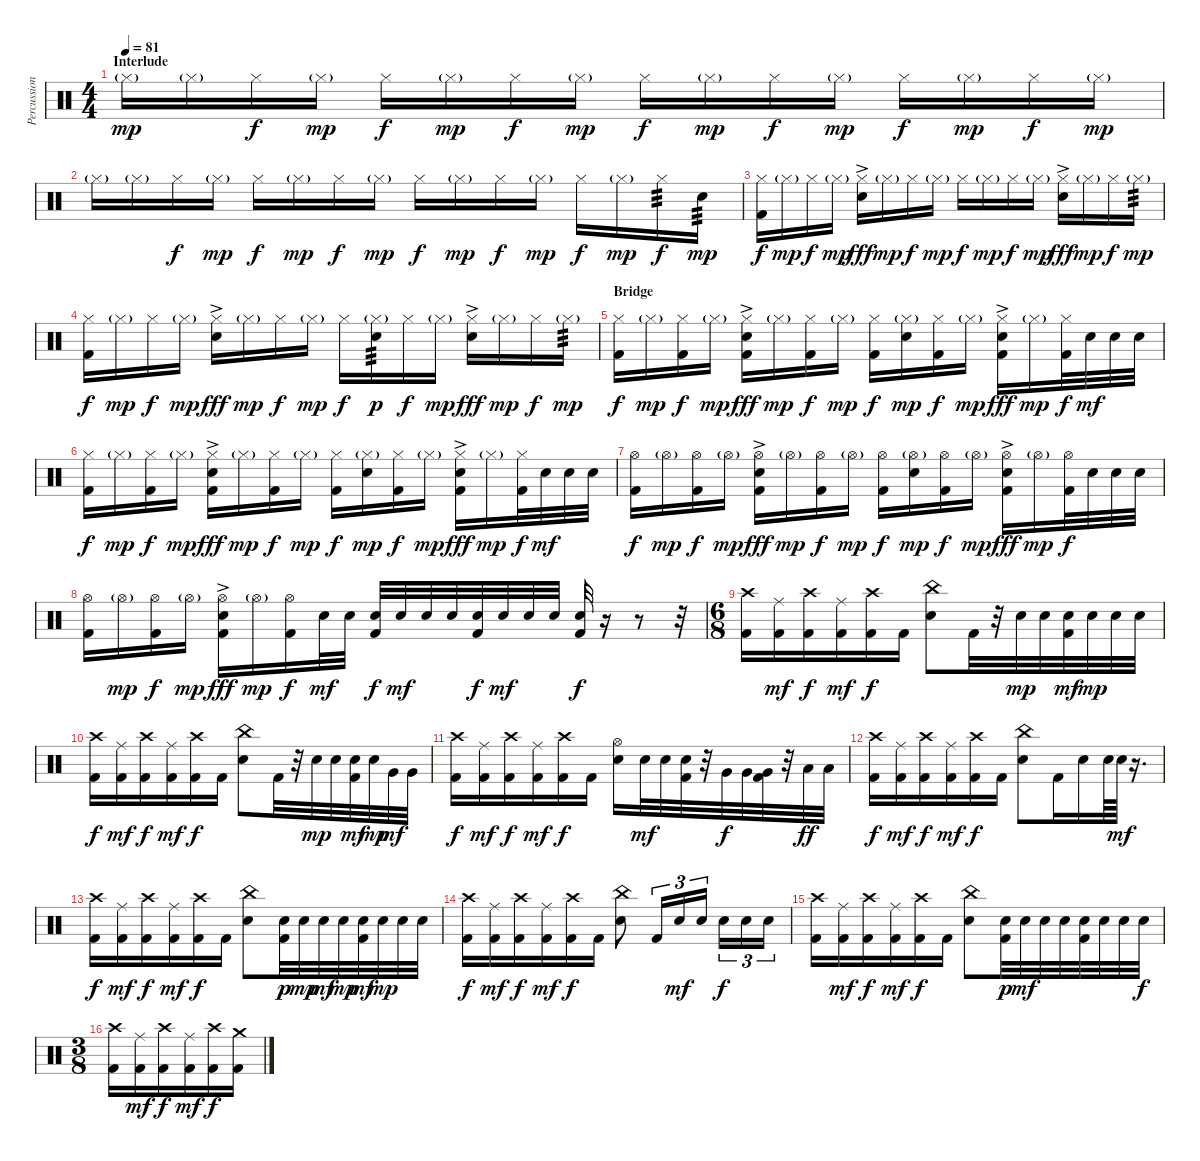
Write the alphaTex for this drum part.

\track ("Percussion" "Percussion") {instrument percussion}
\staff {score}
\articulation defaults
\ts (4 4)
\section ("" "Interlude")
\tempo 81
\clef neutral
\ks c "Hi-Hat (closed)"{g}.16{dy mp} "Hi-Hat (closed)"{g}.16 "Hi-Hat (closed)".16{dy f} "Hi-Hat (closed)"{g}.16{dy mp} "Hi-Hat (closed)".16{dy f} "Hi-Hat (closed)"{g}.16{dy mp} "Hi-Hat (closed)".16{dy f} "Hi-Hat (closed)"{g}.16{dy mp} "Hi-Hat (closed)".16{dy f} "Hi-Hat (closed)"{g}.16{dy mp} "Hi-Hat (closed)".16{dy f} "Hi-Hat (closed)"{g}.16{dy mp} "Hi-Hat (closed)".16{dy f} "Hi-Hat (closed)"{g}.16{dy mp} "Hi-Hat (closed)".16{dy f} "Hi-Hat (closed)"{g}.16{dy mp}
|
"Hi-Hat (closed)"{g}.16 "Hi-Hat (closed)"{g}.16 "Hi-Hat (closed)".16{dy f} "Hi-Hat (closed)"{g}.16{dy mp} "Hi-Hat (closed)".16{dy f} "Hi-Hat (closed)"{g}.16{dy mp} "Hi-Hat (closed)".16{dy f} "Hi-Hat (closed)"{g}.16{dy mp} "Hi-Hat (closed)".16{dy f} "Hi-Hat (closed)"{g}.16{dy mp} "Hi-Hat (closed)".16{dy f} "Hi-Hat (closed)"{g}.16{dy mp} "Hi-Hat (closed)".16{dy f} "Hi-Hat (closed)"{g}.16{dy mp} "Hi-Hat (closed)".16{tp 3 dy f} "Electric Snare (hit)".16{tp 3 dy mp} |
("Hi-Hat (closed)" "Kick (hit) 2").16{dy f} "Hi-Hat (closed)"{g}.16{dy mp} "Hi-Hat (closed)".16{dy f} "Hi-Hat (closed)"{g}.16{dy mp} ("Hi-Hat (closed)" "Electric Snare (hit)"{ac}).16{dy fff} "Hi-Hat (closed)"{g}.16{dy mp} "Hi-Hat (closed)".16{dy f} "Hi-Hat (closed)"{g}.16{dy mp} "Hi-Hat (closed)".16{dy f} "Hi-Hat (closed)"{g}.16{dy mp} "Hi-Hat (closed)".16{dy f} "Hi-Hat (closed)"{g}.16{dy mp} ("Hi-Hat (closed)" "Electric Snare (hit)"{ac}).16{dy fff} "Hi-Hat (closed)"{g}.16{dy mp} "Hi-Hat (closed)".16{dy f} "Hi-Hat (closed)"{g}.16{tp 3 dy mp} |
("Hi-Hat (closed)" "Kick (hit) 2").16{dy f} "Hi-Hat (closed)"{g}.16{dy mp} "Hi-Hat (closed)".16{dy f} "Hi-Hat (closed)"{g}.16{dy mp} ("Hi-Hat (closed)" "Electric Snare (hit)"{ac}).16{dy fff} "Hi-Hat (closed)"{g}.16{dy mp} "Hi-Hat (closed)".16{dy f} "Hi-Hat (closed)"{g}.16{dy mp} "Hi-Hat (closed)".16{dy f} ("Hi-Hat (closed)"{g} "Electric Snare (hit)").16{tp 3 dy p} "Hi-Hat (closed)".16{dy f} "Hi-Hat (closed)"{g}.16{dy mp} ("Hi-Hat (closed)" "Electric Snare (hit)"{ac}).16{dy fff} "Hi-Hat (closed)"{g}.16{dy mp} "Hi-Hat (closed)".16{dy f} "Hi-Hat (closed)"{g}.16{tp 3 dy mp} |
\section ("" "Bridge")
("Hi-Hat (closed)" "Kick (hit) 2").16{dy f} "Hi-Hat (closed)"{g}.16{dy mp} ("Hi-Hat (closed)" "Kick (hit) 2").16{dy f} "Hi-Hat (closed)"{g}.16{dy mp} ("Hi-Hat (closed)" "Electric Snare (hit)"{ac} "Kick (hit) 2").16{dy fff} "Hi-Hat (closed)"{g}.16{dy mp} ("Hi-Hat (closed)" "Kick (hit) 2").16{dy f} "Hi-Hat (closed)"{g}.16{dy mp} ("Hi-Hat (closed)" "Kick (hit) 2").16{dy f} ("Hi-Hat (closed)"{g} "Electric Snare (hit)").16{dy mp} ("Hi-Hat (closed)" "Kick (hit) 2").16{dy f} "Hi-Hat (closed)"{g}.16{dy mp} ("Hi-Hat (closed)" "Electric Snare (hit)"{ac} "Kick (hit) 2").16{dy fff} "Hi-Hat (closed)"{g}.16{dy mp} ("Hi-Hat (closed)" "Kick (hit) 2").32{dy f} "Electric Snare (hit)".32{dy mf} "Electric Snare (hit)".32 "Electric Snare (hit)".32 |
("Hi-Hat (closed)" "Kick (hit) 2").16{dy f} "Hi-Hat (closed)"{g}.16{dy mp} ("Hi-Hat (closed)" "Kick (hit) 2").16{dy f} "Hi-Hat (closed)"{g}.16{dy mp} ("Hi-Hat (closed)" "Electric Snare (hit)"{ac} "Kick (hit) 2").16{dy fff} "Hi-Hat (closed)"{g}.16{dy mp} ("Hi-Hat (closed)" "Kick (hit) 2").16{dy f} "Hi-Hat (closed)"{g}.16{dy mp} ("Hi-Hat (closed)" "Kick (hit) 2").16{dy f} ("Hi-Hat (closed)"{g} "Electric Snare (hit)").16{dy mp} ("Hi-Hat (closed)" "Kick (hit) 2").16{dy f} "Hi-Hat (closed)"{g}.16{dy mp} ("Hi-Hat (closed)" "Electric Snare (hit)"{ac} "Kick (hit) 2").16{dy fff} "Hi-Hat (closed)"{g}.16{dy mp} ("Hi-Hat (closed)" "Kick (hit) 2").32{dy f} "Electric Snare (hit)".32{dy mf} "Electric Snare (hit)".32 "Electric Snare (hit)".32 |
("Hi-Hat (open)" "Kick (hit) 2").16{dy f} "Hi-Hat (open)"{g}.16{dy mp} ("Hi-Hat (open)" "Kick (hit) 2").16{dy f} "Hi-Hat (open)"{g}.16{dy mp} ("Hi-Hat (open)" "Electric Snare (hit)"{ac} "Kick (hit) 2").16{dy fff} "Hi-Hat (open)"{g}.16{dy mp} ("Hi-Hat (open)" "Kick (hit) 2").16{dy f} "Hi-Hat (open)"{g}.16{dy mp} ("Hi-Hat (open)" "Kick (hit) 2").16{dy f} ("Hi-Hat (open)"{g} "Electric Snare (hit)").16{dy mp} ("Hi-Hat (open)" "Kick (hit) 2").16{dy f} "Hi-Hat (open)"{g}.16{dy mp} ("Hi-Hat (open)" "Electric Snare (hit)"{ac} "Kick (hit) 2").16{dy fff} "Hi-Hat (open)"{g}.16{dy mp} ("Hi-Hat (open)" "Kick (hit) 2").32{dy f} "Electric Snare (hit)".32 "Electric Snare (hit)".32 "Electric Snare (hit)".32 |
("Hi-Hat (open)" "Kick (hit) 2").16 "Hi-Hat (open)"{g}.16{dy mp} ("Hi-Hat (open)" "Kick (hit) 2").16{dy f} "Hi-Hat (open)"{g}.16{dy mp} ("Hi-Hat (open)" "Electric Snare (hit)"{ac} "Kick (hit) 2").16{dy fff} "Hi-Hat (open)"{g}.16{dy mp} ("Hi-Hat (open)" "Kick (hit) 2").16{dy f} "Electric Snare (hit)".32{dy mf} "Electric Snare (hit)".32 ("Electric Snare (hit)" "Kick (hit) 2").32{dy f} "Electric Snare (hit)".32{dy mf} "Electric Snare (hit)".32 "Electric Snare (hit)".32 ("Electric Snare (hit)" "Kick (hit) 2").32{dy f} "Electric Snare (hit)".32{dy mf} "Electric Snare (hit)".32 "Electric Snare (hit)".32 ("Electric Snare (hit)" "Kick (hit) 2").32{dy f} r.16 r.8 r.32 |
\ts (6 8)
("Crash high (hit)" "Kick (hit) 2").16 ("Ride (middle)" "Kick (hit) 2").16{dy mf} ("Crash high (hit)" "Kick (hit) 2").16{dy f} ("Ride (middle)" "Kick (hit) 2").16{dy mf} ("Crash high (hit)" "Kick (hit) 2").16{dy f} "Kick (hit) 2".16 ("China (hit)" "Electric Snare (hit)").8 "Kick (hit) 2".32 r.32 "Electric Snare (hit)".32{dy mp} "Electric Snare (hit)".32 ("Electric Snare (hit)" "Kick (hit) 2").32{dy mf} "Electric Snare (hit)".32{dy mp} "Electric Snare (hit)".32 "Electric Snare (hit)".32 |
("Crash high (hit)" "Kick (hit) 2").16{dy f} ("Ride (middle)" "Kick (hit) 2").16{dy mf} ("Crash high (hit)" "Kick (hit) 2").16{dy f} ("Ride (middle)" "Kick (hit) 2").16{dy mf} ("Crash high (hit)" "Kick (hit) 2").16{dy f} "Kick (hit) 2".16 ("China (hit)" "Electric Snare (hit)").8 "Kick (hit) 2".32 r.32 "Electric Snare (hit)".32{dy mp} "Electric Snare (hit)".32 ("Electric Snare (hit)" "Kick (hit) 2").32{dy mf} "Electric Snare (hit)".32{dy mp} "Very Low Tom (hit)".32{dy mf} "Very Low Tom (hit)".32 |
("Crash high (hit)" "Kick (hit) 2").16{dy f} ("Ride (middle)" "Kick (hit) 2").16{dy mf} ("Crash high (hit)" "Kick (hit) 2").16{dy f} ("Ride (middle)" "Kick (hit) 2").16{dy mf} ("Crash high (hit)" "Kick (hit) 2").16{dy f} "Kick (hit) 2".16 ("Hi-Hat (open)" "Electric Snare (hit)").16 "Electric Snare (hit)".32{dy mf} "Electric Snare (hit)".32 ("Electric Snare (hit)" "Kick (hit) 2").32 r.32 "Very Low Tom (hit)".32{dy f} "Very Low Tom (hit)".32 ("Very Low Tom (hit)" "Kick (hit) 2").32 r.32 "Low Floor Tom (hit)".32{dy ff} "Low Floor Tom (hit)".32 |
("Crash high (hit)" "Kick (hit) 2").16{dy f} ("Ride (middle)" "Kick (hit) 2").16{dy mf} ("Crash high (hit)" "Kick (hit) 2").16{dy f} ("Ride (middle)" "Kick (hit) 2").16{dy mf} ("Crash high (hit)" "Kick (hit) 2").16{dy f} "Kick (hit) 2".16 ("China (hit)" "Electric Snare (hit)").8 "Kick (hit) 2".16 "Electric Snare (hit)".16 "Electric Snare (hit)".64 "Electric Snare (hit)".64{dy mf} r.16{d} |
("Crash high (hit)" "Kick (hit) 2").16{dy f} ("Ride (middle)" "Kick (hit) 2").16{dy mf} ("Crash high (hit)" "Kick (hit) 2").16{dy f} ("Ride (middle)" "Kick (hit) 2").16{dy mf} ("Crash high (hit)" "Kick (hit) 2").16{dy f} "Kick (hit) 2".16 ("China (hit)" "Electric Snare (hit)").8 ("Electric Snare (hit)" "Kick (hit) 2").32{dy p} "Electric Snare (hit)".32{dy mp} "Electric Snare (hit)".32{dy mf} "Electric Snare (hit)".32{dy mp} ("Electric Snare (hit)" "Kick (hit) 2").32{dy mf} "Electric Snare (hit)".32{dy mp} "Electric Snare (hit)".32 "Electric Snare (hit)".32 |
("Crash high (hit)" "Kick (hit) 2").16{dy f} ("Ride (middle)" "Kick (hit) 2").16{dy mf} ("Crash high (hit)" "Kick (hit) 2").16{dy f} ("Ride (middle)" "Kick (hit) 2").16{dy mf} ("Crash high (hit)" "Kick (hit) 2").16{dy f} "Kick (hit) 2".16 ("China (hit)" "Electric Snare (hit)").8 "Kick (hit) 2".16{tu (3 2)} "Electric Snare (hit)".16{tu (3 2) dy mf} "Electric Snare (hit)".16{tu (3 2)} "Electric Snare (hit)".16{tu (3 2) dy f} "Electric Snare (hit)".16{tu (3 2)} "Electric Snare (hit)".16{tu (3 2)} |
("Crash high (hit)" "Kick (hit) 2").16 ("Ride (middle)" "Kick (hit) 2").16{dy mf} ("Crash high (hit)" "Kick (hit) 2").16{dy f} ("Ride (middle)" "Kick (hit) 2").16{dy mf} ("Crash high (hit)" "Kick (hit) 2").16{dy f} "Kick (hit) 2".16 ("China (hit)" "Electric Snare (hit)").8 ("Electric Snare (hit)" "Kick (hit) 2").32{dy p} "Electric Snare (hit)".32{dy mf} "Electric Snare (hit)".32 "Electric Snare (hit)".32 ("Electric Snare (hit)" "Kick (hit) 2").32 "Electric Snare (hit)".32 "Electric Snare (hit)".32 "Electric Snare (hit)".32{dy f} |
\ts (3 8)
("Crash high (hit)" "Kick (hit) 2").16 ("Ride (middle)" "Kick (hit) 2").16{dy mf} ("Crash high (hit)" "Kick (hit) 2").16{dy f} ("Ride (middle)" "Kick (hit) 2").16{dy mf} ("Crash high (hit)" "Kick (hit) 2").16{dy f} ("Crash medium (hit)" "Kick (hit) 2").16
